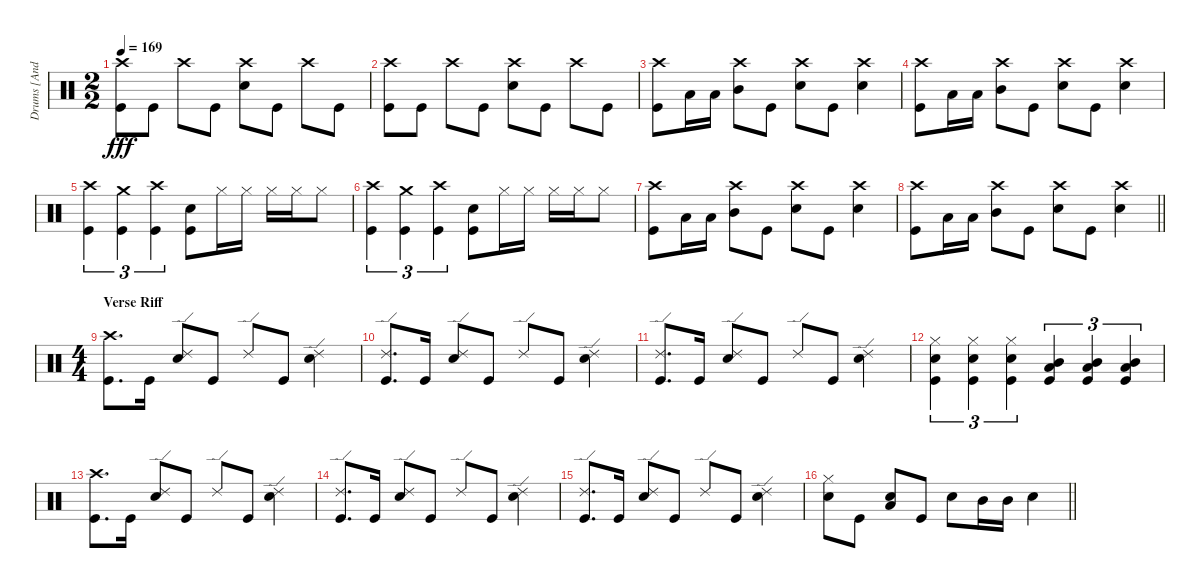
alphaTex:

\track ("Drums [Andrew Forsman]" "Drums [And") {instrument percussion}
\staff {score}
\articulation defaults
\ts (2 2)
\tempo 169
\clef neutral
\ks c
("Crash high (hit)" "Kick (hit)").8{dy fff} "Kick (hit)".8 "Crash high (hit)".8 "Kick (hit)".8 ("Crash high (hit)" "Snare (hit) 2").8 "Kick (hit)".8 "Crash high (hit)".8 "Kick (hit)".8 |
("Crash high (hit)" "Kick (hit)").8 "Kick (hit)".8 "Crash high (hit)".8 "Kick (hit)".8 ("Crash high (hit)" "Snare (hit) 2").8 "Kick (hit)".8 "Crash high (hit)".8 "Kick (hit)".8 |
("Kick (hit)" "Crash high (hit)").8 "Low Tom (hit)".16 "Low Tom (hit)".16 ("Mid Tom (hit)" "Crash high (hit)").8 "Kick (hit)".8 ("Snare (hit) 2" "Crash high (hit)").8 "Kick (hit)".8 ("Snare (hit) 2" "Crash high (hit)").4 |
("Kick (hit)" "Crash high (hit)").8 "Low Tom (hit)".16 "Low Tom (hit)".16 ("Mid Tom (hit)" "Crash high (hit)").8 "Kick (hit)".8 ("Snare (hit) 2" "Crash high (hit)").8 "Kick (hit)".8 ("Snare (hit) 2" "Crash high (hit)").4 |
("Kick (hit)" "Crash high (hit)").4{tu (3 2)} ("Kick (hit)" "Crash medium (hit)").4{tu (3 2)} ("Kick (hit)" "Crash high (hit)").4{tu (3 2)} ("Snare (hit) 2" "Kick (hit)").8 "Hi-Hat (closed)".16 "Hi-Hat (closed)".16 "Hi-Hat (closed)".16 "Hi-Hat (closed)".16 "Hi-Hat (closed)".8 |
("Kick (hit)" "Crash high (hit)").4{tu (3 2)} ("Kick (hit)" "Crash medium (hit)").4{tu (3 2)} ("Kick (hit)" "Crash high (hit)").4{tu (3 2)} ("Snare (hit) 2" "Kick (hit)").8 "Hi-Hat (closed)".16 "Hi-Hat (closed)".16 "Hi-Hat (closed)".16 "Hi-Hat (closed)".16 "Hi-Hat (closed)".8 |
("Kick (hit)" "Crash high (hit)").8 "Low Tom (hit)".16 "Low Tom (hit)".16 ("Mid Tom (hit)" "Crash high (hit)").8 "Kick (hit)".8 ("Snare (hit) 2" "Crash high (hit)").8 "Kick (hit)".8 ("Snare (hit) 2" "Crash high (hit)").4 |
\barLineRight lightlight
("Kick (hit)" "Crash high (hit)").8 "Low Tom (hit)".16 "Low Tom (hit)".16 ("Mid Tom (hit)" "Crash high (hit)").8 "Kick (hit)".8 ("Snare (hit) 2" "Crash high (hit)").8 "Kick (hit)".8 ("Snare (hit) 2" "Crash high (hit)").4 |
\ts (4 4)
\section ("" "Verse Riff")
("Crash high (hit)" "Kick (hit)").8{d} "Kick (hit)".16 ("Ride (edge) 2" "Snare (hit) 2").8 "Kick (hit)".8 "Ride (edge) 2".8 "Kick (hit)".8 ("Ride (edge) 2" "Snare (hit) 2").4 |
("Ride (edge) 2" "Kick (hit)").8{d} "Kick (hit)".16 ("Ride (edge) 2" "Snare (hit) 2").8 "Kick (hit)".8 "Ride (edge) 2".8 "Kick (hit)".8 ("Ride (edge) 2" "Snare (hit) 2").4 |
("Ride (edge) 2" "Kick (hit)").8{d} "Kick (hit)".16 ("Ride (edge) 2" "Snare (hit) 2").8 "Kick (hit)".8 "Ride (edge) 2".8 "Kick (hit)".8 ("Ride (edge) 2" "Snare (hit) 2").4 |
("Hi-Hat (closed)" "Snare (hit) 2" "Kick (hit)").4{tu (3 2)} ("Hi-Hat (closed)" "Snare (hit) 2" "Kick (hit)").4{tu (3 2)} ("Hi-Hat (closed)" "Snare (hit) 2" "Kick (hit)").4{tu (3 2)} ("Mid Tom (hit)" "Low Tom (hit)" "Kick (hit)").4{tu (3 2)} ("Mid Tom (hit)" "Low Tom (hit)" "Kick (hit)").4{tu (3 2)} ("Mid Tom (hit)" "Low Tom (hit)" "Kick (hit)").4{tu (3 2)} |
("Crash high (hit)" "Kick (hit)").8{d} "Kick (hit)".16 ("Ride (edge) 2" "Snare (hit) 2").8 "Kick (hit)".8 "Ride (edge) 2".8 "Kick (hit)".8 ("Ride (edge) 2" "Snare (hit) 2").4 |
("Ride (edge) 2" "Kick (hit)").8{d} "Kick (hit)".16 ("Ride (edge) 2" "Snare (hit) 2").8 "Kick (hit)".8 "Ride (edge) 2".8 "Kick (hit)".8 ("Ride (edge) 2" "Snare (hit) 2").4 |
("Ride (edge) 2" "Kick (hit)").8{d} "Kick (hit)".16 ("Ride (edge) 2" "Snare (hit) 2").8 "Kick (hit)".8 "Ride (edge) 2".8 "Kick (hit)".8 ("Ride (edge) 2" "Snare (hit) 2").4 |
\barLineRight lightlight
("Snare (hit) 2" "Hi-Hat (closed)").8 "Kick (hit)".8 ("Snare (hit) 2" "Low Tom (hit)").8 "Kick (hit)".8 "Snare (hit) 2".8 "Mid Tom (hit)".16 "Mid Tom (hit)".16 "Snare (hit) 2".4
